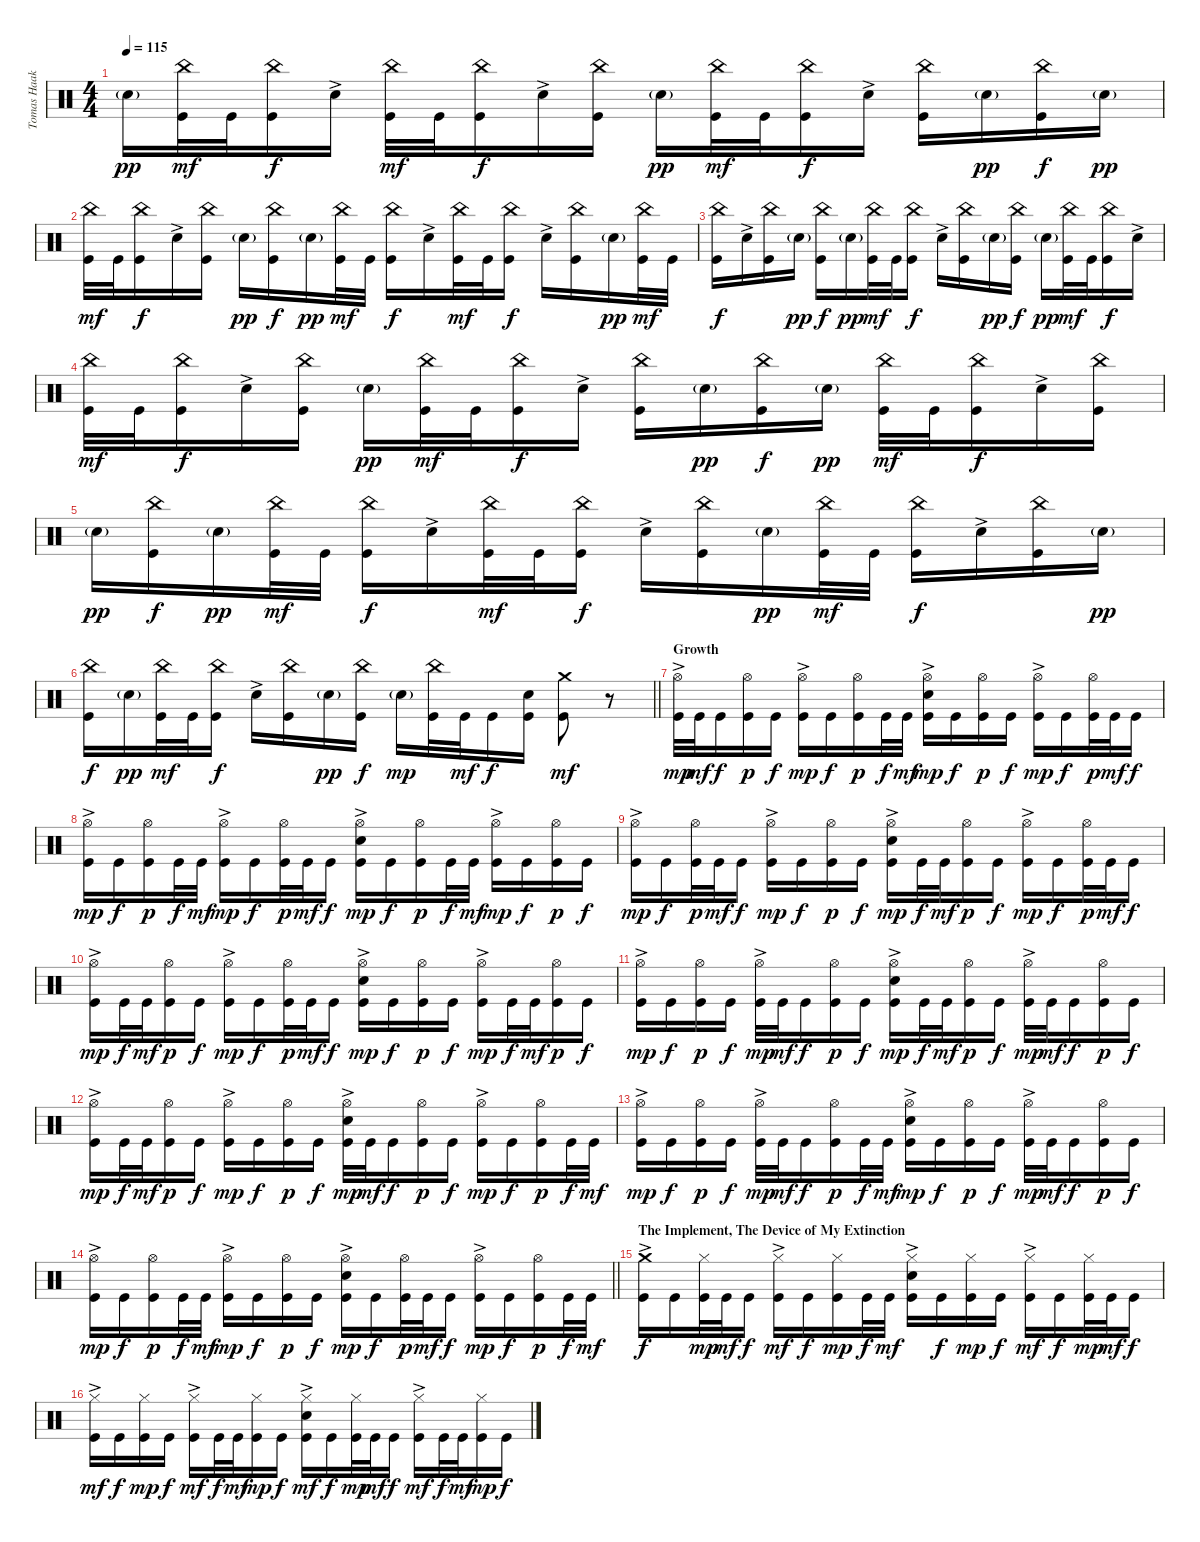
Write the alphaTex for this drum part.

\track ("Tomas Haake (Drums)" "Tomas Haak") {instrument percussion}
\staff {score}
\articulation defaults
\ts (4 4)
\tempo 115
\clef neutral
\ks c "Electric Snare (hit)"{g}.16{dy pp}
("China (hit)" "Kick (hit)").32{dy mf} "Kick (hit)".32 ("China (hit)" "Kick (hit)").16{dy f} "Electric Snare (hit)"{ac}.16 ("China (hit)" "Kick (hit)").32{dy mf} "Kick (hit)".32 ("China (hit)" "Kick (hit)").16{dy f} "Electric Snare (hit)"{ac}.16 ("China (hit)" "Kick (hit)").16 "Electric Snare (hit)"{g}.16{dy pp} ("China (hit)" "Kick (hit)").32{dy mf} "Kick (hit)".32 ("China (hit)" "Kick (hit)").16{dy f} "Electric Snare (hit)"{ac}.16 ("China (hit)" "Kick (hit)").16 "Electric Snare (hit)"{g}.16{dy pp} ("China (hit)" "Kick (hit)").16{dy f} "Electric Snare (hit)"{g}.16{dy pp} |
("China (hit)" "Kick (hit)").32{dy mf} "Kick (hit)".32 ("China (hit)" "Kick (hit)").16{dy f} "Electric Snare (hit)"{ac}.16 ("China (hit)" "Kick (hit)").16 "Electric Snare (hit)"{g}.16{dy pp} ("China (hit)" "Kick (hit)").16{dy f} "Electric Snare (hit)"{g}.16{dy pp} ("China (hit)" "Kick (hit)").32{dy mf} "Kick (hit)".32 ("China (hit)" "Kick (hit)").16{dy f} "Electric Snare (hit)"{ac}.16 ("China (hit)" "Kick (hit)").32{dy mf} "Kick (hit)".32 ("China (hit)" "Kick (hit)").16{dy f} "Electric Snare (hit)"{ac}.16 ("China (hit)" "Kick (hit)").16 "Electric Snare (hit)"{g}.16{dy pp} ("China (hit)" "Kick (hit)").32{dy mf} "Kick (hit)".32 |
("China (hit)" "Kick (hit)").16{dy f} "Electric Snare (hit)"{ac}.16 ("China (hit)" "Kick (hit)").16 "Electric Snare (hit)"{g}.16{dy pp} ("China (hit)" "Kick (hit)").16{dy f} "Electric Snare (hit)"{g}.16{dy pp} ("China (hit)" "Kick (hit)").32{dy mf} "Kick (hit)".32 ("China (hit)" "Kick (hit)").16{dy f} "Electric Snare (hit)"{ac}.16 ("China (hit)" "Kick (hit)").16 "Electric Snare (hit)"{g}.16{dy pp} ("China (hit)" "Kick (hit)").16{dy f} "Electric Snare (hit)"{g}.16{dy pp} ("China (hit)" "Kick (hit)").32{dy mf} "Kick (hit)".32 ("China (hit)" "Kick (hit)").16{dy f} "Electric Snare (hit)"{ac}.16 |
("China (hit)" "Kick (hit)").32{dy mf} "Kick (hit)".32 ("China (hit)" "Kick (hit)").16{dy f} "Electric Snare (hit)"{ac}.16 ("China (hit)" "Kick (hit)").16 "Electric Snare (hit)"{g}.16{dy pp} ("China (hit)" "Kick (hit)").32{dy mf} "Kick (hit)".32 ("China (hit)" "Kick (hit)").16{dy f} "Electric Snare (hit)"{ac}.16 ("China (hit)" "Kick (hit)").16 "Electric Snare (hit)"{g}.16{dy pp} ("China (hit)" "Kick (hit)").16{dy f} "Electric Snare (hit)"{g}.16{dy pp} ("China (hit)" "Kick (hit)").32{dy mf} "Kick (hit)".32 ("China (hit)" "Kick (hit)").16{dy f} "Electric Snare (hit)"{ac}.16 ("China (hit)" "Kick (hit)").16 |
"Electric Snare (hit)"{g}.16{dy pp} ("China (hit)" "Kick (hit)").16{dy f} "Electric Snare (hit)"{g}.16{dy pp} ("China (hit)" "Kick (hit)").32{dy mf} "Kick (hit)".32 ("China (hit)" "Kick (hit)").16{dy f} "Electric Snare (hit)"{ac}.16 ("China (hit)" "Kick (hit)").32{dy mf} "Kick (hit)".32 ("China (hit)" "Kick (hit)").16{dy f} "Electric Snare (hit)"{ac}.16 ("China (hit)" "Kick (hit)").16 "Electric Snare (hit)"{g}.16{dy pp} ("China (hit)" "Kick (hit)").32{dy mf} "Kick (hit)".32 ("China (hit)" "Kick (hit)").16{dy f} "Electric Snare (hit)"{ac}.16 ("China (hit)" "Kick (hit)").16 "Electric Snare (hit)"{g}.16{dy pp} |
\barLineRight lightlight
("China (hit)" "Kick (hit)").16{dy f} "Electric Snare (hit)"{g}.16{dy pp} ("China (hit)" "Kick (hit)").32{dy mf} "Kick (hit)".32 ("China (hit)" "Kick (hit)").16{dy f} "Electric Snare (hit)"{ac}.16 ("China (hit)" "Kick (hit)").16 "Electric Snare (hit)"{g}.16{dy pp} ("China (hit)" "Kick (hit)").16{dy f} "Electric Snare (hit)"{g}.16{dy mp} ("China (hit)" "Kick (hit)").32 "Kick (hit)".32{dy mf} "Kick (hit)".16{dy f} ("Electric Snare (hit)" "Kick (hit)").16 ("Crash medium (hit)" "Kick (hit)").8{dy mf} r.8 |
\section ("" "Growth")
("Hi-Hat (open)"{ac} "Kick (hit)").32{dy mp} "Kick (hit)".32{dy mf} "Kick (hit)".16{dy f} ("Hi-Hat (open)" "Kick (hit)").16{dy p} "Kick (hit)".16{dy f} ("Hi-Hat (open)"{ac} "Kick (hit)").16{dy mp} "Kick (hit)".16{dy f} ("Hi-Hat (open)" "Kick (hit)").16{dy p} "Kick (hit)".32{dy f} "Kick (hit)".32{dy mf} ("Hi-Hat (open)"{ac} "Electric Snare (hit)" "Kick (hit)").16{dy mp} "Kick (hit)".16{dy f} ("Hi-Hat (open)" "Kick (hit)").16{dy p} "Kick (hit)".16{dy f} ("Hi-Hat (open)"{ac} "Kick (hit)").16{dy mp} "Kick (hit)".16{dy f} ("Hi-Hat (open)" "Kick (hit)").32{dy p} "Kick (hit)".32{dy mf} "Kick (hit)".16{dy f} |
("Hi-Hat (open)"{ac} "Kick (hit)").16{dy mp} "Kick (hit)".16{dy f} ("Hi-Hat (open)" "Kick (hit)").16{dy p} "Kick (hit)".32{dy f} "Kick (hit)".32{dy mf} ("Hi-Hat (open)"{ac} "Kick (hit)").16{dy mp} "Kick (hit)".16{dy f} ("Hi-Hat (open)" "Kick (hit)").32{dy p} "Kick (hit)".32{dy mf} "Kick (hit)".16{dy f} ("Hi-Hat (open)"{ac} "Electric Snare (hit)" "Kick (hit)").16{dy mp} "Kick (hit)".16{dy f} ("Hi-Hat (open)" "Kick (hit)").16{dy p} "Kick (hit)".32{dy f} "Kick (hit)".32{dy mf} ("Hi-Hat (open)"{ac} "Kick (hit)").16{dy mp} "Kick (hit)".16{dy f} ("Hi-Hat (open)" "Kick (hit)").16{dy p} "Kick (hit)".16{dy f} |
("Hi-Hat (open)"{ac} "Kick (hit)").16{dy mp} "Kick (hit)".16{dy f} ("Hi-Hat (open)" "Kick (hit)").32{dy p} "Kick (hit)".32{dy mf} "Kick (hit)".16{dy f} ("Hi-Hat (open)"{ac} "Kick (hit)").16{dy mp} "Kick (hit)".16{dy f} ("Hi-Hat (open)" "Kick (hit)").16{dy p} "Kick (hit)".16{dy f} ("Hi-Hat (open)"{ac} "Electric Snare (hit)" "Kick (hit)").16{dy mp} "Kick (hit)".32{dy f} "Kick (hit)".32{dy mf} ("Hi-Hat (open)" "Kick (hit)").16{dy p} "Kick (hit)".16{dy f} ("Hi-Hat (open)"{ac} "Kick (hit)").16{dy mp} "Kick (hit)".16{dy f} ("Hi-Hat (open)" "Kick (hit)").32{dy p} "Kick (hit)".32{dy mf} "Kick (hit)".16{dy f} |
("Hi-Hat (open)"{ac} "Kick (hit)").16{dy mp} "Kick (hit)".32{dy f} "Kick (hit)".32{dy mf} ("Hi-Hat (open)" "Kick (hit)").16{dy p} "Kick (hit)".16{dy f} ("Hi-Hat (open)"{ac} "Kick (hit)").16{dy mp} "Kick (hit)".16{dy f} ("Hi-Hat (open)" "Kick (hit)").32{dy p} "Kick (hit)".32{dy mf} "Kick (hit)".16{dy f} ("Hi-Hat (open)"{ac} "Electric Snare (hit)" "Kick (hit)").16{dy mp} "Kick (hit)".16{dy f} ("Hi-Hat (open)" "Kick (hit)").16{dy p} "Kick (hit)".16{dy f} ("Hi-Hat (open)"{ac} "Kick (hit)").16{dy mp} "Kick (hit)".32{dy f} "Kick (hit)".32{dy mf} ("Hi-Hat (open)" "Kick (hit)").16{dy p} "Kick (hit)".16{dy f} |
("Hi-Hat (open)"{ac} "Kick (hit)").16{dy mp} "Kick (hit)".16{dy f} ("Hi-Hat (open)" "Kick (hit)").16{dy p} "Kick (hit)".16{dy f} ("Hi-Hat (open)"{ac} "Kick (hit)").32{dy mp} "Kick (hit)".32{dy mf} "Kick (hit)".16{dy f} ("Hi-Hat (open)" "Kick (hit)").16{dy p} "Kick (hit)".16{dy f} ("Hi-Hat (open)"{ac} "Electric Snare (hit)" "Kick (hit)").16{dy mp} "Kick (hit)".32{dy f} "Kick (hit)".32{dy mf} ("Hi-Hat (open)" "Kick (hit)").16{dy p} "Kick (hit)".16{dy f} ("Hi-Hat (open)"{ac} "Kick (hit)").32{dy mp} "Kick (hit)".32{dy mf} "Kick (hit)".16{dy f} ("Hi-Hat (open)" "Kick (hit)").16{dy p} "Kick (hit)".16{dy f} |
("Hi-Hat (open)"{ac} "Kick (hit)").16{dy mp} "Kick (hit)".32{dy f} "Kick (hit)".32{dy mf} ("Hi-Hat (open)" "Kick (hit)").16{dy p} "Kick (hit)".16{dy f} ("Hi-Hat (open)"{ac} "Kick (hit)").16{dy mp} "Kick (hit)".16{dy f} ("Hi-Hat (open)" "Kick (hit)").16{dy p} "Kick (hit)".16{dy f} ("Hi-Hat (open)"{ac} "Electric Snare (hit)" "Kick (hit)").32{dy mp} "Kick (hit)".32{dy mf} "Kick (hit)".16{dy f} ("Hi-Hat (open)" "Kick (hit)").16{dy p} "Kick (hit)".16{dy f} ("Hi-Hat (open)"{ac} "Kick (hit)").16{dy mp} "Kick (hit)".16{dy f} ("Hi-Hat (open)" "Kick (hit)").16{dy p} "Kick (hit)".32{dy f} "Kick (hit)".32{dy mf} |
("Hi-Hat (open)"{ac} "Kick (hit)").16{dy mp} "Kick (hit)".16{dy f} ("Hi-Hat (open)" "Kick (hit)").16{dy p} "Kick (hit)".16{dy f} ("Hi-Hat (open)"{ac} "Kick (hit)").32{dy mp} "Kick (hit)".32{dy mf} "Kick (hit)".16{dy f} ("Hi-Hat (open)" "Kick (hit)").16{dy p} "Kick (hit)".32{dy f} "Kick (hit)".32{dy mf} ("Hi-Hat (open)"{ac} "Electric Snare (hit)" "Kick (hit)").16{dy mp} "Kick (hit)".16{dy f} ("Hi-Hat (open)" "Kick (hit)").16{dy p} "Kick (hit)".16{dy f} ("Hi-Hat (open)"{ac} "Kick (hit)").32{dy mp} "Kick (hit)".32{dy mf} "Kick (hit)".16{dy f} ("Hi-Hat (open)" "Kick (hit)").16{dy p} "Kick (hit)".16{dy f} |
\barLineRight lightlight
("Hi-Hat (open)"{ac} "Kick (hit)").16{dy mp} "Kick (hit)".16{dy f} ("Hi-Hat (open)" "Kick (hit)").16{dy p} "Kick (hit)".32{dy f} "Kick (hit)".32{dy mf} ("Hi-Hat (open)"{ac} "Kick (hit)").16{dy mp} "Kick (hit)".16{dy f} ("Hi-Hat (open)" "Kick (hit)").16{dy p} "Kick (hit)".16{dy f} ("Hi-Hat (open)"{ac} "Electric Snare (hit)" "Kick (hit)").16{dy mp} "Kick (hit)".16{dy f} ("Hi-Hat (open)" "Kick (hit)").32{dy p} "Kick (hit)".32{dy mf} "Kick (hit)".16{dy f} ("Hi-Hat (open)"{ac} "Kick (hit)").16{dy mp} "Kick (hit)".16{dy f} ("Hi-Hat (open)" "Kick (hit)").16{dy p} "Kick (hit)".32{dy f} "Kick (hit)".32{dy mf} |
\section ("" "The Implement, The Device of My Extinction")
("Crash medium (hit)"{ac} "Kick (hit)").16{dy f} "Kick (hit)".16 ("Hi-Hat (closed)" "Kick (hit)").32{dy mp} "Kick (hit)".32{dy mf} "Kick (hit)".16{dy f} ("Hi-Hat (closed)"{ac} "Kick (hit)").16{dy mf} "Kick (hit)".16{dy f} ("Hi-Hat (closed)" "Kick (hit)").16{dy mp} "Kick (hit)".32{dy f} "Kick (hit)".32{dy mf} ("Hi-Hat (closed)"{ac} "Electric Snare (hit)" "Kick (hit)").16 "Kick (hit)".16{dy f} ("Hi-Hat (closed)" "Kick (hit)").16{dy mp} "Kick (hit)".16{dy f} ("Hi-Hat (closed)"{ac} "Kick (hit)").16{dy mf} "Kick (hit)".16{dy f} ("Hi-Hat (closed)" "Kick (hit)").32{dy mp} "Kick (hit)".32{dy mf} "Kick (hit)".16{dy f} |
("Hi-Hat (closed)"{ac} "Kick (hit)").16{dy mf} "Kick (hit)".16{dy f} ("Hi-Hat (closed)" "Kick (hit)").16{dy mp} "Kick (hit)".16{dy f} ("Hi-Hat (closed)"{ac} "Kick (hit)").16{dy mf} "Kick (hit)".32{dy f} "Kick (hit)".32{dy mf} ("Hi-Hat (closed)" "Kick (hit)").16{dy mp} "Kick (hit)".16{dy f} ("Hi-Hat (closed)"{ac} "Electric Snare (hit)" "Kick (hit)").16{dy mf} "Kick (hit)".16{dy f} ("Hi-Hat (closed)" "Kick (hit)").32{dy mp} "Kick (hit)".32{dy mf} "Kick (hit)".16{dy f} ("Hi-Hat (closed)"{ac} "Kick (hit)").16{dy mf} "Kick (hit)".32{dy f} "Kick (hit)".32{dy mf} ("Hi-Hat (closed)" "Kick (hit)").16{dy mp} "Kick (hit)".16{dy f}
